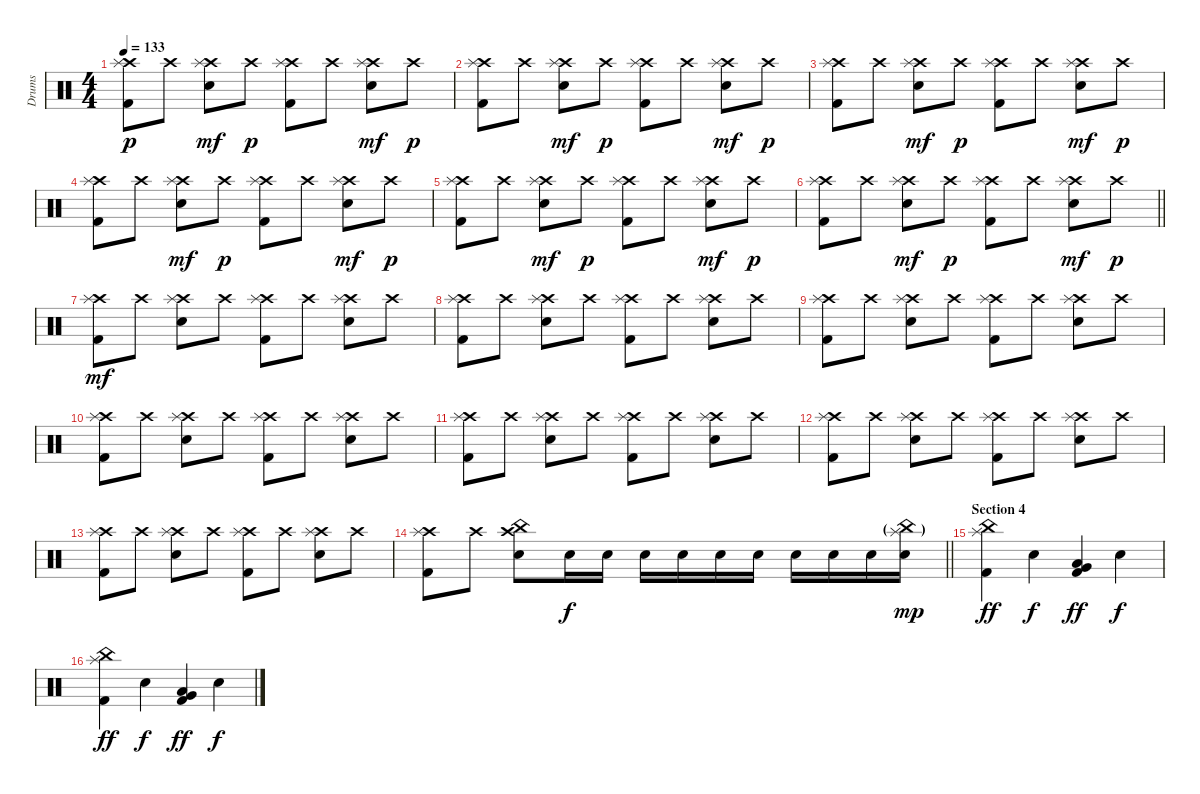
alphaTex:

\track ("Drums" "Drums") {instrument percussion}
\staff {score}
\articulation defaults
\ts (4 4)
\tempo 133
\clef neutral
\ks c
("Crash high (hit)" "Splash (hit)" "Kick (hit) 2").8{dy p} "Crash high (hit)".8 ("Crash high (hit)" "Splash (hit)" "Electric Snare (hit)").8{dy mf} "Crash high (hit)".8{dy p} ("Crash high (hit)" "Splash (hit)" "Kick (hit) 2").8 "Crash high (hit)".8 ("Crash high (hit)" "Splash (hit)" "Electric Snare (hit)").8{dy mf} "Crash high (hit)".8{dy p} |
("Crash high (hit)" "Splash (hit)" "Kick (hit) 2").8 "Crash high (hit)".8 ("Crash high (hit)" "Splash (hit)" "Electric Snare (hit)").8{dy mf} "Crash high (hit)".8{dy p} ("Crash high (hit)" "Splash (hit)" "Kick (hit) 2").8 "Crash high (hit)".8 ("Crash high (hit)" "Splash (hit)" "Electric Snare (hit)").8{dy mf} "Crash high (hit)".8{dy p} |
("Crash high (hit)" "Splash (hit)" "Kick (hit) 2").8 "Crash high (hit)".8 ("Crash high (hit)" "Splash (hit)" "Electric Snare (hit)").8{dy mf} "Crash high (hit)".8{dy p} ("Crash high (hit)" "Splash (hit)" "Kick (hit) 2").8 "Crash high (hit)".8 ("Crash high (hit)" "Splash (hit)" "Electric Snare (hit)").8{dy mf} "Crash high (hit)".8{dy p} |
("Crash high (hit)" "Splash (hit)" "Kick (hit) 2").8 "Crash high (hit)".8 ("Crash high (hit)" "Splash (hit)" "Electric Snare (hit)").8{dy mf} "Crash high (hit)".8{dy p} ("Crash high (hit)" "Splash (hit)" "Kick (hit) 2").8 "Crash high (hit)".8 ("Crash high (hit)" "Splash (hit)" "Electric Snare (hit)").8{dy mf} "Crash high (hit)".8{dy p} |
("Crash high (hit)" "Splash (hit)" "Kick (hit) 2").8 "Crash high (hit)".8 ("Crash high (hit)" "Splash (hit)" "Electric Snare (hit)").8{dy mf} "Crash high (hit)".8{dy p} ("Crash high (hit)" "Splash (hit)" "Kick (hit) 2").8 "Crash high (hit)".8 ("Crash high (hit)" "Splash (hit)" "Electric Snare (hit)").8{dy mf} "Crash high (hit)".8{dy p} |
\barLineRight lightlight
("Crash high (hit)" "Splash (hit)" "Kick (hit) 2").8 "Crash high (hit)".8 ("Crash high (hit)" "Splash (hit)" "Electric Snare (hit)").8{dy mf} "Crash high (hit)".8{dy p} ("Crash high (hit)" "Splash (hit)" "Kick (hit) 2").8 "Crash high (hit)".8 ("Crash high (hit)" "Splash (hit)" "Electric Snare (hit)").8{dy mf} "Crash high (hit)".8{dy p} |
("Crash high (hit)" "Splash (hit)" "Kick (hit) 2").8{dy mf} "Crash high (hit)".8 ("Crash high (hit)" "Splash (hit)" "Electric Snare (hit)").8 "Crash high (hit)".8 ("Crash high (hit)" "Splash (hit)" "Kick (hit) 2").8 "Crash high (hit)".8 ("Crash high (hit)" "Splash (hit)" "Electric Snare (hit)").8 "Crash high (hit)".8 |
("Crash high (hit)" "Splash (hit)" "Kick (hit) 2").8 "Crash high (hit)".8 ("Crash high (hit)" "Splash (hit)" "Electric Snare (hit)").8 "Crash high (hit)".8 ("Crash high (hit)" "Splash (hit)" "Kick (hit) 2").8 "Crash high (hit)".8 ("Crash high (hit)" "Splash (hit)" "Electric Snare (hit)").8 "Crash high (hit)".8 |
("Crash high (hit)" "Splash (hit)" "Kick (hit) 2").8 "Crash high (hit)".8 ("Crash high (hit)" "Splash (hit)" "Electric Snare (hit)").8 "Crash high (hit)".8 ("Crash high (hit)" "Splash (hit)" "Kick (hit) 2").8 "Crash high (hit)".8 ("Crash high (hit)" "Splash (hit)" "Electric Snare (hit)").8 "Crash high (hit)".8 |
("Crash high (hit)" "Splash (hit)" "Kick (hit) 2").8 "Crash high (hit)".8 ("Crash high (hit)" "Splash (hit)" "Electric Snare (hit)").8 "Crash high (hit)".8 ("Crash high (hit)" "Splash (hit)" "Kick (hit) 2").8 "Crash high (hit)".8 ("Crash high (hit)" "Splash (hit)" "Electric Snare (hit)").8 "Crash high (hit)".8 |
("Crash high (hit)" "Splash (hit)" "Kick (hit) 2").8 "Crash high (hit)".8 ("Crash high (hit)" "Splash (hit)" "Electric Snare (hit)").8 "Crash high (hit)".8 ("Crash high (hit)" "Splash (hit)" "Kick (hit) 2").8 "Crash high (hit)".8 ("Crash high (hit)" "Splash (hit)" "Electric Snare (hit)").8 "Crash high (hit)".8 |
("Crash high (hit)" "Splash (hit)" "Kick (hit) 2").8 "Crash high (hit)".8 ("Crash high (hit)" "Splash (hit)" "Electric Snare (hit)").8 "Crash high (hit)".8 ("Crash high (hit)" "Splash (hit)" "Kick (hit) 2").8 "Crash high (hit)".8 ("Crash high (hit)" "Splash (hit)" "Electric Snare (hit)").8 "Crash high (hit)".8 |
("Crash high (hit)" "Splash (hit)" "Kick (hit) 2").8 "Crash high (hit)".8 ("Crash high (hit)" "Splash (hit)" "Electric Snare (hit)").8 "Crash high (hit)".8 ("Crash high (hit)" "Splash (hit)" "Kick (hit) 2").8 "Crash high (hit)".8 ("Crash high (hit)" "Splash (hit)" "Electric Snare (hit)").8 "Crash high (hit)".8 |
\barLineRight lightlight
("Crash high (hit)" "Splash (hit)" "Kick (hit) 2").8 "Crash high (hit)".8 ("Crash high (hit)" "China (hit)" "Electric Snare (hit)").8 "Electric Snare (hit)".16{dy f} "Electric Snare (hit)".16 "Electric Snare (hit)".16 "Electric Snare (hit)".16 "Electric Snare (hit)".16 "Electric Snare (hit)".16 "Electric Snare (hit)".16 "Electric Snare (hit)".16 "Electric Snare (hit)".16 ("Splash (hit)"{g} "China (hit)"{g} "Electric Snare (hit)").16{dy mp} |
\section ("" "Section 4")
("Splash (hit)" "China (hit)" "Kick (hit) 2").4{dy ff} "Electric Snare (hit)".4{dy f} ("Very Low Tom (hit)" "Low Floor Tom (hit)" "Kick (hit) 2").4{dy ff} "Electric Snare (hit)".4{dy f} |
("Splash (hit)" "China (hit)" "Kick (hit) 2").4{dy ff} "Electric Snare (hit)".4{dy f} ("Very Low Tom (hit)" "Low Floor Tom (hit)" "Kick (hit) 2").4{dy ff} "Electric Snare (hit)".4{dy f}
